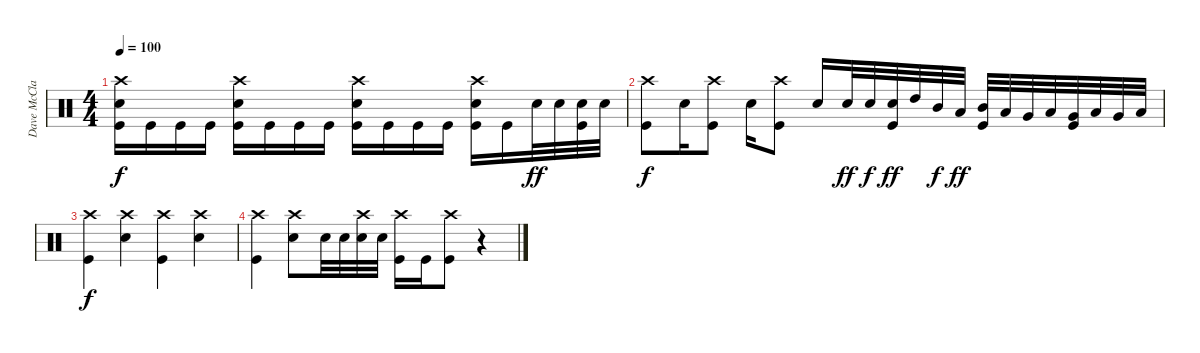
\track ("Dave McClain" "Dave McCla") {instrument percussion}
\staff {score}
\articulation defaults
\ts (4 4)
\tempo 100
\clef neutral
\ks c
("Crash high (hit)" "Snare (hit) 2" "Kick (hit)").16{dy f} "Kick (hit)".16 "Kick (hit)".16 "Kick (hit)".16 ("Crash high (hit)" "Snare (hit) 2" "Kick (hit)").16 "Kick (hit)".16 "Kick (hit)".16 "Kick (hit)".16 ("Crash high (hit)" "Snare (hit) 2" "Kick (hit)").16 "Kick (hit)".16 "Kick (hit)".16 "Kick (hit)".16 ("Crash high (hit)" "Snare (hit) 2" "Kick (hit)").16 "Kick (hit)".16 "Snare (hit) 2".32{dy ff} "Snare (hit) 2".32 ("Snare (hit) 2" "Kick (hit)").32 "Snare (hit) 2".32 |
("Crash high (hit)" "Kick (hit)").8{dy f} "Snare (hit) 2".16 ("Crash high (hit)" "Kick (hit)").8 "Snare (hit) 2".16 ("Crash high (hit)" "Kick (hit)").8 "Snare (hit) 2".16 "Snare (hit) 2".32{dy ff} "Snare (hit) 2".32{dy f} ("Snare (hit) 2" "Kick (hit)").32{dy ff} "High Tom (hit)".32 "Mid Tom (hit)".32{dy f} "Low Tom (hit)".32{dy ff} ("Mid Tom (hit)" "Kick (hit)").32 "Low Tom (hit)".32 "Very Low Tom (hit)".32 "Low Tom (hit)".32 ("Very Low Tom (hit)" "Kick (hit)").32 "Low Floor Tom (hit)".32 "Very Low Tom (hit)".32 "Low Floor Tom (hit)".32 |
("Crash high (hit)" "Kick (hit)").4{dy f} ("Crash high (hit)" "Snare (hit) 2").4 ("Crash high (hit)" "Kick (hit)").4 ("Crash high (hit)" "Snare (hit) 2").4 |
("Crash high (hit)" "Kick (hit)").4 ("Crash high (hit)" "Snare (hit) 2").8 "Snare (hit) 2".32 "Snare (hit) 2".32 ("Crash high (hit)" "Snare (hit) 2").32 "Snare (hit) 2".32 ("Crash high (hit)" "Kick (hit)").16 "Kick (hit)".16 ("Crash high (hit)" "Kick (hit)").8 r.4
